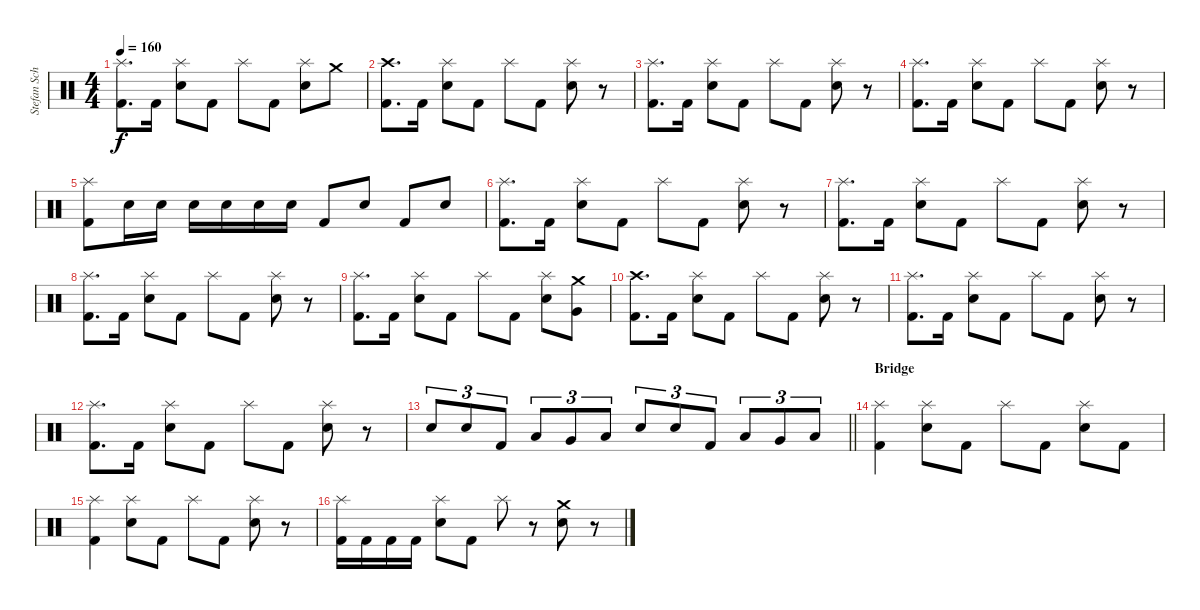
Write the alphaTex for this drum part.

\track ("Stefan Schwarzmann" "Stefan Sch") {instrument percussion}
\staff {score}
\articulation defaults
\ts (4 4)
\tempo 160
\clef neutral
\ks c
("Splash (hit)" "Kick (hit) 2").8{d dy f} "Kick (hit) 2".16 ("Splash (hit)" "Snare (hit) 2").8 "Kick (hit) 2".8 "Splash (hit)".8 "Kick (hit) 2".8 ("Splash (hit)" "Snare (hit) 2").8 "Crash medium (hit)".8 |
("Crash high (hit)" "Kick (hit) 2").8{d} "Kick (hit) 2".16 ("Splash (hit)" "Snare (hit) 2").8 "Kick (hit) 2".8 "Splash (hit)".8 "Kick (hit) 2".8 ("Splash (hit)" "Snare (hit) 2").8 r.8 |
("Splash (hit)" "Kick (hit) 2").8{d} "Kick (hit) 2".16 ("Splash (hit)" "Snare (hit) 2").8 "Kick (hit) 2".8 "Splash (hit)".8 "Kick (hit) 2".8 ("Splash (hit)" "Snare (hit) 2").8 r.8 |
("Splash (hit)" "Kick (hit) 2").8{d} "Kick (hit) 2".16 ("Splash (hit)" "Snare (hit) 2").8 "Kick (hit) 2".8 "Splash (hit)".8 "Kick (hit) 2".8 ("Splash (hit)" "Snare (hit) 2").8 r.8 |
("Splash (hit)" "Kick (hit) 2").8 "Snare (hit) 2".16 "Snare (hit) 2".16 "Snare (hit) 2".16 "Snare (hit) 2".16 "Snare (hit) 2".16 "Snare (hit) 2".16 "Kick (hit) 2".8 "Snare (hit) 2".8 "Kick (hit) 2".8 "Snare (hit) 2".8 |
("Splash (hit)" "Kick (hit) 2").8{d} "Kick (hit) 2".16 ("Splash (hit)" "Snare (hit) 2").8 "Kick (hit) 2".8 "Splash (hit)".8 "Kick (hit) 2".8 ("Splash (hit)" "Snare (hit) 2").8 r.8 |
("Splash (hit)" "Kick (hit) 2").8{d} "Kick (hit) 2".16 ("Splash (hit)" "Snare (hit) 2").8 "Kick (hit) 2".8 "Splash (hit)".8 "Kick (hit) 2".8 ("Splash (hit)" "Snare (hit) 2").8 r.8 |
("Splash (hit)" "Kick (hit) 2").8{d} "Kick (hit) 2".16 ("Splash (hit)" "Snare (hit) 2").8 "Kick (hit) 2".8 "Splash (hit)".8 "Kick (hit) 2".8 ("Splash (hit)" "Snare (hit) 2").8 r.8 |
("Splash (hit)" "Kick (hit) 2").8{d} "Kick (hit) 2".16 ("Splash (hit)" "Snare (hit) 2").8 "Kick (hit) 2".8 "Splash (hit)".8 "Kick (hit) 2".8 ("Splash (hit)" "Snare (hit) 2").8 ("Crash medium (hit)" "Very Low Tom (hit)").8 |
("Crash high (hit)" "Kick (hit) 2").8{d} "Kick (hit) 2".16 ("Splash (hit)" "Snare (hit) 2").8 "Kick (hit) 2".8 "Splash (hit)".8 "Kick (hit) 2".8 ("Splash (hit)" "Snare (hit) 2").8 r.8 |
("Splash (hit)" "Kick (hit) 2").8{d} "Kick (hit) 2".16 ("Splash (hit)" "Snare (hit) 2").8 "Kick (hit) 2".8 "Splash (hit)".8 "Kick (hit) 2".8 ("Splash (hit)" "Snare (hit) 2").8 r.8 |
("Splash (hit)" "Kick (hit) 2").8{d} "Kick (hit) 2".16 ("Splash (hit)" "Snare (hit) 2").8 "Kick (hit) 2".8 "Splash (hit)".8 "Kick (hit) 2".8 ("Splash (hit)" "Snare (hit) 2").8 r.8 |
\barLineRight lightlight "Snare (hit) 2".8{tu (3 2)} "Snare (hit) 2".8{tu (3 2)} "Kick (hit) 2".8{tu (3 2)} "Low Tom (hit)".8{tu (3 2)} "Very Low Tom (hit)".8{tu (3 2)} "Low Floor Tom (hit)".8{tu (3 2)} "Snare (hit) 2".8{tu (3 2)} "Snare (hit) 2".8{tu (3 2)} "Kick (hit) 2".8{tu (3 2)} "Low Tom (hit)".8{tu (3 2)} "Very Low Tom (hit)".8{tu (3 2)} "Low Floor Tom (hit)".8{tu (3 2)}
|
\section ("" "Bridge")
("Splash (hit)" "Kick (hit) 2").4 ("Splash (hit)" "Snare (hit) 2").8 "Kick (hit) 2".8 "Splash (hit)".8 "Kick (hit) 2".8 ("Splash (hit)" "Snare (hit) 2").8 "Kick (hit) 2".8 |
("Splash (hit)" "Kick (hit) 2").4 ("Splash (hit)" "Snare (hit) 2").8 "Kick (hit) 2".8 "Splash (hit)".8 "Kick (hit) 2".8 ("Splash (hit)" "Snare (hit) 2").8 r.8 |
("Splash (hit)" "Kick (hit) 2").16 "Kick (hit) 2".16 "Kick (hit) 2".16 "Kick (hit) 2".16 ("Splash (hit)" "Snare (hit) 2").8 "Kick (hit) 2".8 "Splash (hit)".8 r.8 ("Crash medium (hit)" "Snare (hit) 2").8 r.8
